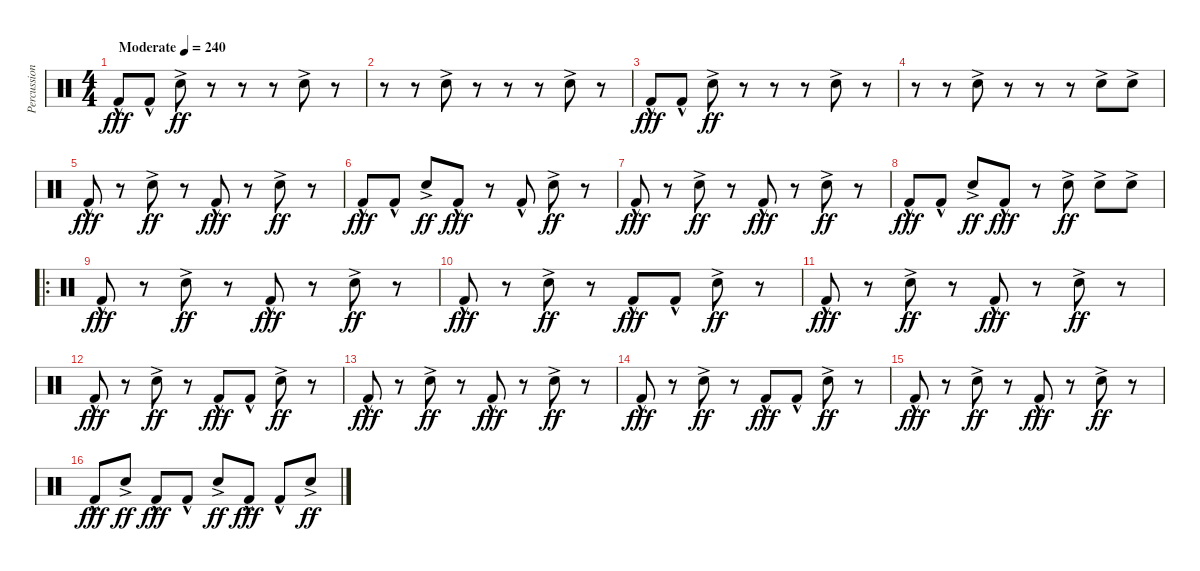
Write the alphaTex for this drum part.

\track ("Percussion" "Percussion") {instrument percussion bank 255}
\staff {score}
\articulation defaults
\ts (4 4)
\tempo (240 "Moderate")
\clef neutral
\ks c "Kick (hit) 2"{hac}.8{dy fff} "Kick (hit) 2"{hac}.8 "Snare (hit) 2"{ac}.8{dy ff}
r.8 r.8 r.8 "Snare (hit) 2"{ac}.8 r.8 |
r.8 r.8 "Snare (hit) 2"{ac}.8 r.8 r.8 r.8 "Snare (hit) 2"{ac}.8 r.8 |
"Kick (hit) 2"{hac}.8{dy fff} "Kick (hit) 2"{hac}.8 "Snare (hit) 2"{ac}.8{dy ff} r.8 r.8 r.8 "Snare (hit) 2"{ac}.8 r.8 |
r.8 r.8 "Snare (hit) 2"{ac}.8 r.8 r.8 r.8 "Snare (hit) 2"{ac}.8 "Snare (hit) 2"{ac}.8 |
"Kick (hit) 2"{hac}.8{dy fff} r.8 "Snare (hit) 2"{ac}.8{dy ff} r.8 "Kick (hit) 2"{hac}.8{dy fff} r.8 "Snare (hit) 2"{ac}.8{dy ff} r.8 |
"Kick (hit) 2"{hac}.8{dy fff} "Kick (hit) 2"{hac}.8 "Snare (hit) 2"{ac}.8{dy ff} "Kick (hit) 2"{hac}.8{dy fff} r.8 "Kick (hit) 2"{hac}.8 "Snare (hit) 2"{ac}.8{dy ff} r.8 |
"Kick (hit) 2"{hac}.8{dy fff} r.8 "Snare (hit) 2"{ac}.8{dy ff} r.8 "Kick (hit) 2"{hac}.8{dy fff} r.8 "Snare (hit) 2"{ac}.8{dy ff} r.8 |
"Kick (hit) 2"{hac}.8{dy fff} "Kick (hit) 2"{hac}.8 "Snare (hit) 2"{ac}.8{dy ff} "Kick (hit) 2"{hac}.8{dy fff} r.8 "Snare (hit) 2"{ac}.8{dy ff} "Snare (hit) 2"{ac}.8 "Snare (hit) 2"{ac}.8 |
\ro "Kick (hit) 2"{hac}.8{dy fff}
r.8 "Snare (hit) 2"{ac}.8{dy ff} r.8 "Kick (hit) 2"{hac}.8{dy fff} r.8 "Snare (hit) 2"{ac}.8{dy ff} r.8 |
"Kick (hit) 2"{hac}.8{dy fff} r.8 "Snare (hit) 2"{ac}.8{dy ff} r.8 "Kick (hit) 2"{hac}.8{dy fff} "Kick (hit) 2"{hac}.8 "Snare (hit) 2"{ac}.8{dy ff} r.8 |
"Kick (hit) 2"{hac}.8{dy fff} r.8 "Snare (hit) 2"{ac}.8{dy ff} r.8 "Kick (hit) 2"{hac}.8{dy fff} r.8 "Snare (hit) 2"{ac}.8{dy ff} r.8 |
"Kick (hit) 2"{hac}.8{dy fff} r.8 "Snare (hit) 2"{ac}.8{dy ff} r.8 "Kick (hit) 2"{hac}.8{dy fff} "Kick (hit) 2"{hac}.8 "Snare (hit) 2"{ac}.8{dy ff} r.8 |
"Kick (hit) 2"{hac}.8{dy fff} r.8 "Snare (hit) 2"{ac}.8{dy ff} r.8 "Kick (hit) 2"{hac}.8{dy fff} r.8 "Snare (hit) 2"{ac}.8{dy ff} r.8 |
"Kick (hit) 2"{hac}.8{dy fff} r.8 "Snare (hit) 2"{ac}.8{dy ff} r.8 "Kick (hit) 2"{hac}.8{dy fff} "Kick (hit) 2"{hac}.8 "Snare (hit) 2"{ac}.8{dy ff} r.8 |
"Kick (hit) 2"{hac}.8{dy fff} r.8 "Snare (hit) 2"{ac}.8{dy ff} r.8 "Kick (hit) 2"{hac}.8{dy fff} r.8 "Snare (hit) 2"{ac}.8{dy ff} r.8 |
"Kick (hit) 2"{hac}.8{dy fff} "Snare (hit) 2"{ac}.8{dy ff} "Kick (hit) 2"{hac}.8{dy fff} "Kick (hit) 2"{hac}.8 "Snare (hit) 2"{ac}.8{dy ff} "Kick (hit) 2"{hac}.8{dy fff} "Kick (hit) 2"{hac}.8 "Snare (hit) 2"{ac}.8{dy ff}
